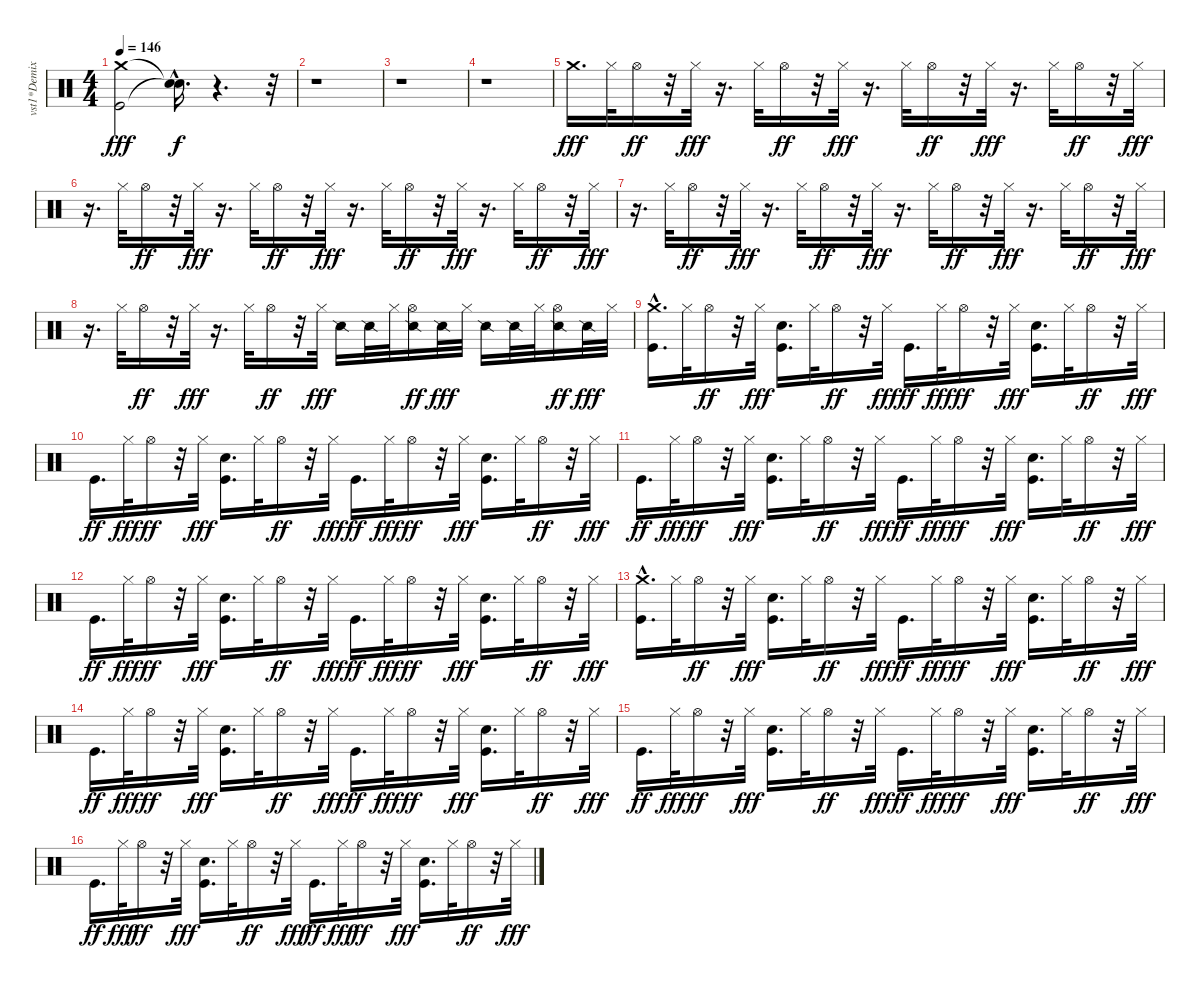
\track ("vst1*Demixed 10" "vst1*Demix") {instrument percussion}
\staff {score}
\articulation defaults
\ts (4 4)
\tempo 146
\clef neutral
\ks c
("Kick (hit)" "Crash medium (hit)").2{dy fff} ("Snare (hit)"{hac t} "Snare (hit)"{hac t}).16{d dy f} r.4{d} r.32 |
r.1 |
r.1 |
r.1 |
"Crash medium (hit)".16{d dy fff} "Hi-Hat (closed)".32 "Hi-Hat (open)".16{dy ff} r.32 "Hi-Hat (closed)".32{dy fff} r.16{d} "Hi-Hat (closed)".32 "Hi-Hat (open)".16{dy ff} r.32 "Hi-Hat (closed)".32{dy fff} r.16{d} "Hi-Hat (closed)".32 "Hi-Hat (open)".16{dy ff} r.32 "Hi-Hat (closed)".32{dy fff} r.16{d} "Hi-Hat (closed)".32 "Hi-Hat (open)".16{dy ff} r.32 "Hi-Hat (closed)".32{dy fff} |
r.16{d} "Hi-Hat (closed)".32 "Hi-Hat (open)".16{dy ff} r.32 "Hi-Hat (closed)".32{dy fff} r.16{d} "Hi-Hat (closed)".32 "Hi-Hat (open)".16{dy ff} r.32 "Hi-Hat (closed)".32{dy fff} r.16{d} "Hi-Hat (closed)".32 "Hi-Hat (open)".16{dy ff} r.32 "Hi-Hat (closed)".32{dy fff} r.16{d} "Hi-Hat (closed)".32 "Hi-Hat (open)".16{dy ff} r.32 "Hi-Hat (closed)".32{dy fff} |
r.16{d} "Hi-Hat (closed)".32 "Hi-Hat (open)".16{dy ff} r.32 "Hi-Hat (closed)".32{dy fff} r.16{d} "Hi-Hat (closed)".32 "Hi-Hat (open)".16{dy ff} r.32 "Hi-Hat (closed)".32{dy fff} r.16{d} "Hi-Hat (closed)".32 "Hi-Hat (open)".16{dy ff} r.32 "Hi-Hat (closed)".32{dy fff} r.16{d} "Hi-Hat (closed)".32 "Hi-Hat (open)".16{dy ff} r.32 "Hi-Hat (closed)".32{dy fff} |
r.16{d} "Hi-Hat (closed)".32 "Hi-Hat (open)".16{dy ff} r.32 "Hi-Hat (closed)".32{dy fff} r.16{d} "Hi-Hat (closed)".32 "Hi-Hat (open)".16{dy ff} r.32 "Hi-Hat (closed)".32{dy fff} "Snare (side stick) 2".16 "Snare (side stick) 2".32 "Hi-Hat (closed)".32 ("Snare (side stick) 2" "Hi-Hat (open)").16{dy ff} "Snare (side stick) 2".32{dy fff} "Hi-Hat (closed)".32 "Snare (side stick) 2".16 "Snare (side stick) 2".32 "Hi-Hat (closed)".32 ("Snare (side stick) 2" "Hi-Hat (open)").16{dy ff} "Snare (side stick) 2".32{dy fff} "Hi-Hat (closed)".32 |
("Kick (hit)" "Crash medium (hit)"{hac}).16{d} "Hi-Hat (closed)".32 "Hi-Hat (open)".16{dy ff} r.32 "Hi-Hat (closed)".32{dy fff} ("Kick (hit)" "Hand Clap (hit)").16{d} "Hi-Hat (closed)".32 "Hi-Hat (open)".16{dy ff} r.32 "Hi-Hat (closed)".32{dy fff} "Kick (hit)".16{d dy ff} "Hi-Hat (closed)".32{dy fff} "Hi-Hat (open)".16{dy ff} r.32 "Hi-Hat (closed)".32{dy fff} ("Kick (hit)" "Hand Clap (hit)").16{d} "Hi-Hat (closed)".32 "Hi-Hat (open)".16{dy ff} r.32 "Hi-Hat (closed)".32{dy fff} |
"Kick (hit)".16{d dy ff} "Hi-Hat (closed)".32{dy fff} "Hi-Hat (open)".16{dy ff} r.32 "Hi-Hat (closed)".32{dy fff} ("Kick (hit)" "Hand Clap (hit)").16{d} "Hi-Hat (closed)".32 "Hi-Hat (open)".16{dy ff} r.32 "Hi-Hat (closed)".32{dy fff} "Kick (hit)".16{d dy ff} "Hi-Hat (closed)".32{dy fff} "Hi-Hat (open)".16{dy ff} r.32 "Hi-Hat (closed)".32{dy fff} ("Kick (hit)" "Hand Clap (hit)").16{d} "Hi-Hat (closed)".32 "Hi-Hat (open)".16{dy ff} r.32 "Hi-Hat (closed)".32{dy fff} |
"Kick (hit)".16{d dy ff} "Hi-Hat (closed)".32{dy fff} "Hi-Hat (open)".16{dy ff} r.32 "Hi-Hat (closed)".32{dy fff} ("Kick (hit)" "Hand Clap (hit)").16{d} "Hi-Hat (closed)".32 "Hi-Hat (open)".16{dy ff} r.32 "Hi-Hat (closed)".32{dy fff} "Kick (hit)".16{d dy ff} "Hi-Hat (closed)".32{dy fff} "Hi-Hat (open)".16{dy ff} r.32 "Hi-Hat (closed)".32{dy fff} ("Kick (hit)" "Hand Clap (hit)").16{d} "Hi-Hat (closed)".32 "Hi-Hat (open)".16{dy ff} r.32 "Hi-Hat (closed)".32{dy fff} |
"Kick (hit)".16{d dy ff} "Hi-Hat (closed)".32{dy fff} "Hi-Hat (open)".16{dy ff} r.32 "Hi-Hat (closed)".32{dy fff} ("Kick (hit)" "Hand Clap (hit)").16{d} "Hi-Hat (closed)".32 "Hi-Hat (open)".16{dy ff} r.32 "Hi-Hat (closed)".32{dy fff} "Kick (hit)".16{d dy ff} "Hi-Hat (closed)".32{dy fff} "Hi-Hat (open)".16{dy ff} r.32 "Hi-Hat (closed)".32{dy fff} ("Kick (hit)" "Hand Clap (hit)").16{d} "Hi-Hat (closed)".32 "Hi-Hat (open)".16{dy ff} r.32 "Hi-Hat (closed)".32{dy fff} |
("Kick (hit)" "Crash medium (hit)"{hac}).16{d} "Hi-Hat (closed)".32 "Hi-Hat (open)".16{dy ff} r.32 "Hi-Hat (closed)".32{dy fff} ("Kick (hit)" "Hand Clap (hit)").16{d} "Hi-Hat (closed)".32 "Hi-Hat (open)".16{dy ff} r.32 "Hi-Hat (closed)".32{dy fff} "Kick (hit)".16{d dy ff} "Hi-Hat (closed)".32{dy fff} "Hi-Hat (open)".16{dy ff} r.32 "Hi-Hat (closed)".32{dy fff} ("Kick (hit)" "Hand Clap (hit)").16{d} "Hi-Hat (closed)".32 "Hi-Hat (open)".16{dy ff} r.32 "Hi-Hat (closed)".32{dy fff} |
"Kick (hit)".16{d dy ff} "Hi-Hat (closed)".32{dy fff} "Hi-Hat (open)".16{dy ff} r.32 "Hi-Hat (closed)".32{dy fff} ("Kick (hit)" "Hand Clap (hit)").16{d} "Hi-Hat (closed)".32 "Hi-Hat (open)".16{dy ff} r.32 "Hi-Hat (closed)".32{dy fff} "Kick (hit)".16{d dy ff} "Hi-Hat (closed)".32{dy fff} "Hi-Hat (open)".16{dy ff} r.32 "Hi-Hat (closed)".32{dy fff} ("Kick (hit)" "Hand Clap (hit)").16{d} "Hi-Hat (closed)".32 "Hi-Hat (open)".16{dy ff} r.32 "Hi-Hat (closed)".32{dy fff} |
"Kick (hit)".16{d dy ff} "Hi-Hat (closed)".32{dy fff} "Hi-Hat (open)".16{dy ff} r.32 "Hi-Hat (closed)".32{dy fff} ("Kick (hit)" "Hand Clap (hit)").16{d} "Hi-Hat (closed)".32 "Hi-Hat (open)".16{dy ff} r.32 "Hi-Hat (closed)".32{dy fff} "Kick (hit)".16{d dy ff} "Hi-Hat (closed)".32{dy fff} "Hi-Hat (open)".16{dy ff} r.32 "Hi-Hat (closed)".32{dy fff} ("Kick (hit)" "Hand Clap (hit)").16{d} "Hi-Hat (closed)".32 "Hi-Hat (open)".16{dy ff} r.32 "Hi-Hat (closed)".32{dy fff} |
"Kick (hit)".16{d dy ff} "Hi-Hat (closed)".32{dy fff} "Hi-Hat (open)".16{dy ff} r.32 "Hi-Hat (closed)".32{dy fff} ("Kick (hit)" "Hand Clap (hit)").16{d} "Hi-Hat (closed)".32 "Hi-Hat (open)".16{dy ff} r.32 "Hi-Hat (closed)".32{dy fff} "Kick (hit)".16{d dy ff} "Hi-Hat (closed)".32{dy fff} "Hi-Hat (open)".16{dy ff} r.32 "Hi-Hat (closed)".32{dy fff} ("Kick (hit)" "Hand Clap (hit)").16{d} "Hi-Hat (closed)".32 "Hi-Hat (open)".16{dy ff} r.32 "Hi-Hat (closed)".32{dy fff}
